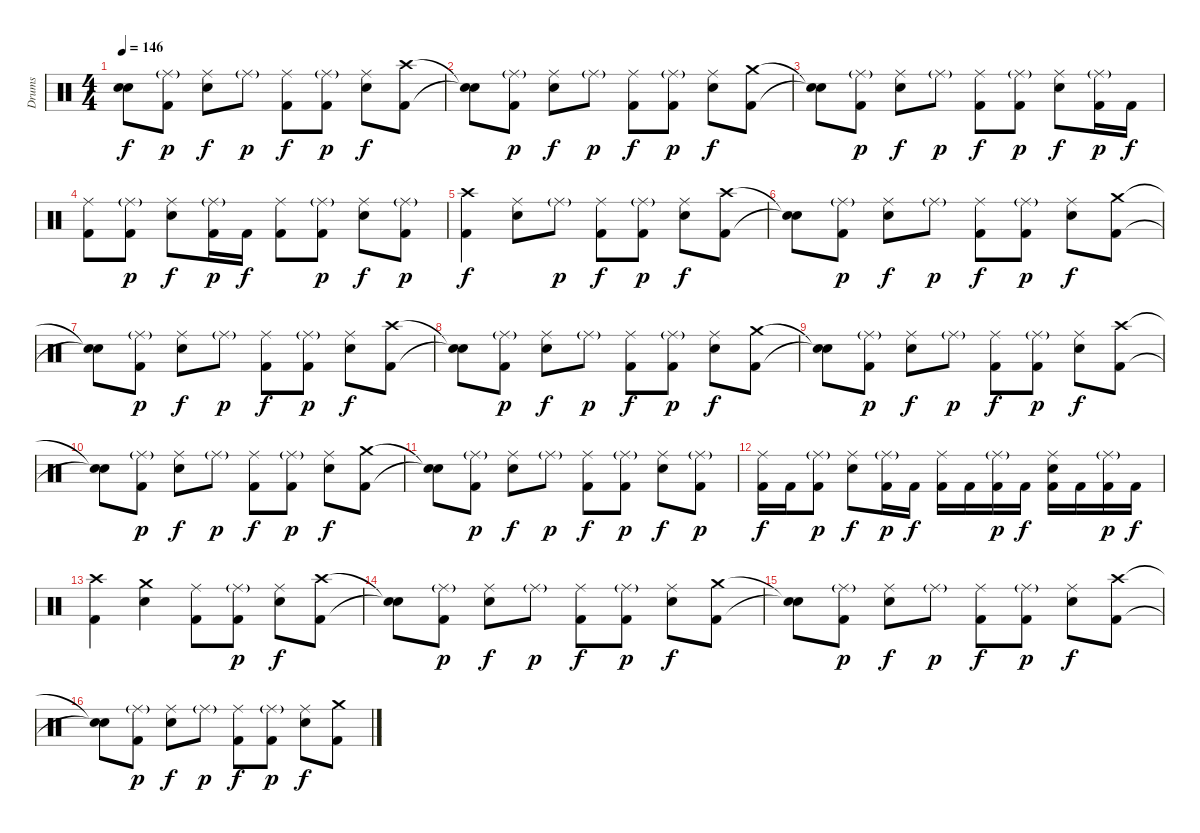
\track ("Drums" "Drums") {instrument percussion}
\staff {score}
\articulation defaults
\ts (4 4)
\tempo 146
\clef neutral
\ks c
("Snare (hit)"{t} "Snare (hit)"{t}).8{dy f} ("Ride (middle)"{g} "Kick (hit) 2").8{dy p} ("Ride (middle)" "Snare (hit) 2").8{dy f} "Ride (middle)"{g}.8{dy p} ("Ride (middle)" "Kick (hit) 2").8{dy f} ("Ride (middle)"{g} "Kick (hit) 2").8{dy p} ("Ride (middle)" "Snare (hit) 2").8{dy f} ("Crash high (hit)" "Kick (hit) 2").8 |
("Snare (hit)"{t} "Snare (hit)"{t}).8 ("Ride (middle)"{g} "Kick (hit) 2").8{dy p} ("Ride (middle)" "Snare (hit) 2").8{dy f} "Ride (middle)"{g}.8{dy p} ("Ride (middle)" "Kick (hit) 2").8{dy f} ("Ride (middle)"{g} "Kick (hit) 2").8{dy p} ("Ride (middle)" "Snare (hit) 2").8{dy f} ("Crash medium (hit)" "Kick (hit) 2").8 |
("Snare (hit)"{t} "Snare (hit)"{t}).8 ("Ride (middle)"{g} "Kick (hit) 2").8{dy p} ("Ride (middle)" "Snare (hit) 2").8{dy f} "Ride (middle)"{g}.8{dy p} ("Ride (middle)" "Kick (hit) 2").8{dy f} ("Ride (middle)"{g} "Kick (hit) 2").8{dy p} ("Ride (middle)" "Snare (hit) 2").8{dy f} ("Ride (middle)"{g} "Kick (hit) 2").16{dy p} "Kick (hit) 2".16{dy f} |
("Ride (middle)" "Kick (hit) 2").8 ("Ride (middle)"{g} "Kick (hit) 2").8{dy p} ("Ride (middle)" "Snare (hit) 2").8{dy f} ("Ride (middle)"{g} "Kick (hit) 2").16{dy p} "Kick (hit) 2".16{dy f} ("Ride (middle)" "Kick (hit) 2").8 ("Ride (middle)"{g} "Kick (hit) 2").8{dy p} ("Ride (middle)" "Snare (hit) 2").8{dy f} ("Ride (middle)"{g} "Kick (hit) 2").8{dy p} |
("Crash high (hit)" "Kick (hit) 2").4{dy f} ("Ride (middle)" "Snare (hit) 2").8 "Ride (middle)"{g}.8{dy p} ("Ride (middle)" "Kick (hit) 2").8{dy f} ("Ride (middle)"{g} "Kick (hit) 2").8{dy p} ("Ride (middle)" "Snare (hit) 2").8{dy f} ("Crash high (hit)" "Kick (hit) 2").8 |
("Snare (hit)"{t} "Snare (hit)"{t}).8 ("Ride (middle)"{g} "Kick (hit) 2").8{dy p} ("Ride (middle)" "Snare (hit) 2").8{dy f} "Ride (middle)"{g}.8{dy p} ("Ride (middle)" "Kick (hit) 2").8{dy f} ("Ride (middle)"{g} "Kick (hit) 2").8{dy p} ("Ride (middle)" "Snare (hit) 2").8{dy f} ("Crash medium (hit)" "Kick (hit) 2").8 |
("Snare (hit)"{t} "Snare (hit)"{t}).8 ("Ride (middle)"{g} "Kick (hit) 2").8{dy p} ("Ride (middle)" "Snare (hit) 2").8{dy f} "Ride (middle)"{g}.8{dy p} ("Ride (middle)" "Kick (hit) 2").8{dy f} ("Ride (middle)"{g} "Kick (hit) 2").8{dy p} ("Ride (middle)" "Snare (hit) 2").8{dy f} ("Crash high (hit)" "Kick (hit) 2").8 |
("Snare (hit)"{t} "Snare (hit)"{t}).8 ("Ride (middle)"{g} "Kick (hit) 2").8{dy p} ("Ride (middle)" "Snare (hit) 2").8{dy f} "Ride (middle)"{g}.8{dy p} ("Ride (middle)" "Kick (hit) 2").8{dy f} ("Ride (middle)"{g} "Kick (hit) 2").8{dy p} ("Ride (middle)" "Snare (hit) 2").8{dy f} ("Crash medium (hit)" "Kick (hit) 2").8 |
("Snare (hit)"{t} "Snare (hit)"{t}).8 ("Ride (middle)"{g} "Kick (hit) 2").8{dy p} ("Ride (middle)" "Snare (hit) 2").8{dy f} "Ride (middle)"{g}.8{dy p} ("Ride (middle)" "Kick (hit) 2").8{dy f} ("Ride (middle)"{g} "Kick (hit) 2").8{dy p} ("Ride (middle)" "Snare (hit) 2").8{dy f} ("Crash high (hit)" "Kick (hit) 2").8 |
("Snare (hit)"{t} "Snare (hit)"{t}).8 ("Ride (middle)"{g} "Kick (hit) 2").8{dy p} ("Ride (middle)" "Snare (hit) 2").8{dy f} "Ride (middle)"{g}.8{dy p} ("Ride (middle)" "Kick (hit) 2").8{dy f} ("Ride (middle)"{g} "Kick (hit) 2").8{dy p} ("Ride (middle)" "Snare (hit) 2").8{dy f} ("Crash medium (hit)" "Kick (hit) 2").8 |
("Snare (hit)"{t} "Snare (hit)"{t}).8 ("Ride (middle)"{g} "Kick (hit) 2").8{dy p} ("Ride (middle)" "Snare (hit) 2").8{dy f} "Ride (middle)"{g}.8{dy p} ("Ride (middle)" "Kick (hit) 2").8{dy f} ("Ride (middle)"{g} "Kick (hit) 2").8{dy p} ("Ride (middle)" "Snare (hit) 2").8{dy f} ("Ride (middle)"{g} "Kick (hit) 2").8{dy p} |
("Ride (middle)" "Kick (hit) 2").16{dy f} "Kick (hit) 2".16 ("Ride (middle)"{g} "Kick (hit) 2").8{dy p} ("Ride (middle)" "Snare (hit) 2").8{dy f} ("Ride (middle)"{g} "Kick (hit) 2").16{dy p} "Kick (hit) 2".16{dy f} ("Ride (middle)" "Kick (hit) 2").16 "Kick (hit) 2".16 ("Ride (middle)"{g} "Kick (hit) 2").16{dy p} "Kick (hit) 2".16{dy f} ("Ride (middle)" "Snare (hit) 2" "Kick (hit) 2").16 "Kick (hit) 2".16 ("Ride (middle)"{g} "Kick (hit) 2").16{dy p} "Kick (hit) 2".16{dy f} |
("Crash high (hit)" "Kick (hit) 2").4 ("Crash medium (hit)" "Snare (hit) 2").4 ("Ride (middle)" "Kick (hit) 2").8 ("Ride (middle)"{g} "Kick (hit) 2").8{dy p} ("Ride (middle)" "Snare (hit) 2").8{dy f} ("Crash high (hit)" "Kick (hit) 2").8 |
("Snare (hit)"{t} "Snare (hit)"{t}).8 ("Ride (middle)"{g} "Kick (hit) 2").8{dy p} ("Ride (middle)" "Snare (hit) 2").8{dy f} "Ride (middle)"{g}.8{dy p} ("Ride (middle)" "Kick (hit) 2").8{dy f} ("Ride (middle)"{g} "Kick (hit) 2").8{dy p} ("Ride (middle)" "Snare (hit) 2").8{dy f} ("Crash medium (hit)" "Kick (hit) 2").8 |
("Snare (hit)"{t} "Snare (hit)"{t}).8 ("Ride (middle)"{g} "Kick (hit) 2").8{dy p} ("Ride (middle)" "Snare (hit) 2").8{dy f} "Ride (middle)"{g}.8{dy p} ("Ride (middle)" "Kick (hit) 2").8{dy f} ("Ride (middle)"{g} "Kick (hit) 2").8{dy p} ("Ride (middle)" "Snare (hit) 2").8{dy f} ("Crash high (hit)" "Kick (hit) 2").8 |
("Snare (hit)"{t} "Snare (hit)"{t}).8 ("Ride (middle)"{g} "Kick (hit) 2").8{dy p} ("Ride (middle)" "Snare (hit) 2").8{dy f} "Ride (middle)"{g}.8{dy p} ("Ride (middle)" "Kick (hit) 2").8{dy f} ("Ride (middle)"{g} "Kick (hit) 2").8{dy p} ("Ride (middle)" "Snare (hit) 2").8{dy f} ("Crash medium (hit)" "Kick (hit) 2").8
